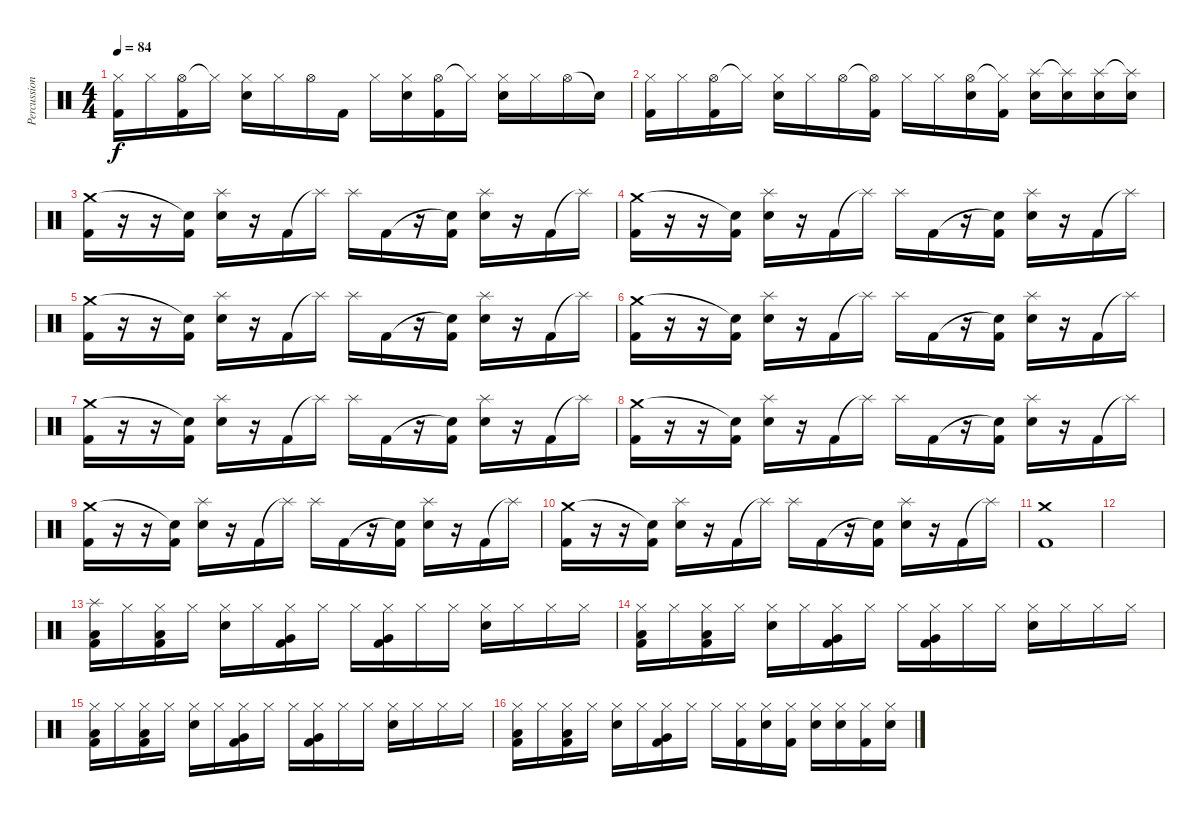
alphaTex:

\track ("Percussion" "Percussion") {instrument percussion}
\staff {score}
\articulation defaults
\ts (4 4)
\tempo 84
\clef neutral
\ks c
("Hi-Hat (closed)" "Kick (hit) 2").16{dy f} "Hi-Hat (closed)".16 ("Hi-Hat (open)" "Kick (hit) 2").16 "Hi-Hat (closed)"{t}.16 ("Hi-Hat (closed)" "Electric Snare (hit)").16 "Hi-Hat (closed)".16 "Hi-Hat (open)".16 "Kick (hit) 2".16 "Hi-Hat (closed)".16 ("Hi-Hat (closed)" "Electric Snare (hit)").16 ("Hi-Hat (open)" "Kick (hit) 2").16 "Hi-Hat (closed)"{t}.16 ("Hi-Hat (closed)" "Electric Snare (hit)").16 "Hi-Hat (closed)".16 "Hi-Hat (open)".16 "Snare (hit)"{t}.16 |
("Hi-Hat (closed)" "Kick (hit) 2").16 "Hi-Hat (closed)".16 ("Hi-Hat (open)" "Kick (hit) 2").16 "Hi-Hat (closed)"{t}.16 ("Hi-Hat (closed)" "Electric Snare (hit)").16 "Hi-Hat (closed)".16 "Hi-Hat (open)".16 ("Hi-Hat (open)"{t} "Kick (hit) 2").16 "Hi-Hat (closed)".16 "Hi-Hat (closed)".16 ("Hi-Hat (open)" "Electric Snare (hit)").16 ("Hi-Hat (closed)"{t} "Kick (hit) 2").16 ("Splash (hit)" "Electric Snare (hit)").16 ("Splash (hit)"{t} "Electric Snare (hit)").16 ("Splash (hit)" "Electric Snare (hit)").16 ("Splash (hit)"{t} "Electric Snare (hit)").16 |
("Crash medium (hit)" "Kick (hit) 2").16 r.16 r.16 ("Snare (hit)"{t} "Kick (hit) 2").16 ("Splash (hit)" "Electric Snare (hit)").16 r.16 "Kick (hit) 2".16 "Splash (hit)"{t}.16 "Splash (hit)".16 "Kick (hit) 2".16 r.16 ("Snare (hit)"{t} "Kick (hit) 2").16 ("Splash (hit)" "Electric Snare (hit)").16 r.16 "Kick (hit) 2".16 "Splash (hit)"{t}.16 |
("Crash medium (hit)" "Kick (hit) 2").16 r.16 r.16 ("Snare (hit)"{t} "Kick (hit) 2").16 ("Splash (hit)" "Electric Snare (hit)").16 r.16 "Kick (hit) 2".16 "Splash (hit)"{t}.16 "Splash (hit)".16 "Kick (hit) 2".16 r.16 ("Snare (hit)"{t} "Kick (hit) 2").16 ("Splash (hit)" "Electric Snare (hit)").16 r.16 "Kick (hit) 2".16 "Splash (hit)"{t}.16 |
("Crash medium (hit)" "Kick (hit) 2").16 r.16 r.16 ("Snare (hit)"{t} "Kick (hit) 2").16 ("Splash (hit)" "Electric Snare (hit)").16 r.16 "Kick (hit) 2".16 "Splash (hit)"{t}.16 "Splash (hit)".16 "Kick (hit) 2".16 r.16 ("Snare (hit)"{t} "Kick (hit) 2").16 ("Splash (hit)" "Electric Snare (hit)").16 r.16 "Kick (hit) 2".16 "Splash (hit)"{t}.16 |
("Crash medium (hit)" "Kick (hit) 2").16 r.16 r.16 ("Snare (hit)"{t} "Kick (hit) 2").16 ("Splash (hit)" "Electric Snare (hit)").16 r.16 "Kick (hit) 2".16 "Splash (hit)"{t}.16 "Splash (hit)".16 "Kick (hit) 2".16 r.16 ("Snare (hit)"{t} "Kick (hit) 2").16 ("Splash (hit)" "Electric Snare (hit)").16 r.16 "Kick (hit) 2".16 "Splash (hit)"{t}.16 |
("Crash medium (hit)" "Kick (hit) 2").16 r.16 r.16 ("Snare (hit)"{t} "Kick (hit) 2").16 ("Splash (hit)" "Electric Snare (hit)").16 r.16 "Kick (hit) 2".16 "Splash (hit)"{t}.16 "Splash (hit)".16 "Kick (hit) 2".16 r.16 ("Snare (hit)"{t} "Kick (hit) 2").16 ("Splash (hit)" "Electric Snare (hit)").16 r.16 "Kick (hit) 2".16 "Splash (hit)"{t}.16 |
("Crash medium (hit)" "Kick (hit) 2").16 r.16 r.16 ("Snare (hit)"{t} "Kick (hit) 2").16 ("Splash (hit)" "Electric Snare (hit)").16 r.16 "Kick (hit) 2".16 "Splash (hit)"{t}.16 "Splash (hit)".16 "Kick (hit) 2".16 r.16 ("Snare (hit)"{t} "Kick (hit) 2").16 ("Splash (hit)" "Electric Snare (hit)").16 r.16 "Kick (hit) 2".16 "Splash (hit)"{t}.16 |
("Crash medium (hit)" "Kick (hit) 2").16 r.16 r.16 ("Snare (hit)"{t} "Kick (hit) 2").16 ("Splash (hit)" "Electric Snare (hit)").16 r.16 "Kick (hit) 2".16 "Splash (hit)"{t}.16 "Splash (hit)".16 "Kick (hit) 2".16 r.16 ("Snare (hit)"{t} "Kick (hit) 2").16 ("Splash (hit)" "Electric Snare (hit)").16 r.16 "Kick (hit) 2".16 "Splash (hit)"{t}.16 |
("Crash medium (hit)" "Kick (hit) 2").16 r.16 r.16 ("Snare (hit)"{t} "Kick (hit) 2").16 ("Splash (hit)" "Electric Snare (hit)").16 r.16 "Kick (hit) 2".16 "Splash (hit)"{t}.16 "Splash (hit)".16 "Kick (hit) 2".16 r.16 ("Snare (hit)"{t} "Kick (hit) 2").16 ("Splash (hit)" "Electric Snare (hit)").16 r.16 "Kick (hit) 2".16 "Splash (hit)"{t}.16 |
("Crash medium (hit)" "Kick (hit) 2").1 |
|
("Splash (hit)" "Low Floor Tom (hit)" "Kick (hit) 2").16 "Hi-Hat (closed)".16 ("Hi-Hat (closed)" "Low Floor Tom (hit)" "Kick (hit) 2").16 "Hi-Hat (closed)".16 ("Hi-Hat (closed)" "Electric Snare (hit)").16 "Hi-Hat (closed)".16 ("Hi-Hat (closed)" "Very Low Tom (hit)" "Kick (hit) 2").16 "Hi-Hat (closed)".16 "Hi-Hat (closed)".16 ("Hi-Hat (closed)" "Very Low Tom (hit)" "Kick (hit) 2").16 "Hi-Hat (closed)".16 "Hi-Hat (closed)".16 ("Hi-Hat (closed)" "Electric Snare (hit)").16 "Hi-Hat (closed)".16 "Hi-Hat (closed)".16 "Hi-Hat (closed)".16 |
("Hi-Hat (closed)" "Low Floor Tom (hit)" "Kick (hit) 2").16 "Hi-Hat (closed)".16 ("Hi-Hat (closed)" "Low Floor Tom (hit)" "Kick (hit) 2").16 "Hi-Hat (closed)".16 ("Hi-Hat (closed)" "Electric Snare (hit)").16 "Hi-Hat (closed)".16 ("Hi-Hat (closed)" "Very Low Tom (hit)" "Kick (hit) 2").16 "Hi-Hat (closed)".16 "Hi-Hat (closed)".16 ("Hi-Hat (closed)" "Very Low Tom (hit)" "Kick (hit) 2").16 "Hi-Hat (closed)".16 "Hi-Hat (closed)".16 ("Hi-Hat (closed)" "Electric Snare (hit)").16 "Hi-Hat (closed)".16 "Hi-Hat (closed)".16 "Hi-Hat (closed)".16 |
("Hi-Hat (closed)" "Low Floor Tom (hit)" "Kick (hit) 2").16 "Hi-Hat (closed)".16 ("Hi-Hat (closed)" "Low Floor Tom (hit)" "Kick (hit) 2").16 "Hi-Hat (closed)".16 ("Hi-Hat (closed)" "Electric Snare (hit)").16 "Hi-Hat (closed)".16 ("Hi-Hat (closed)" "Very Low Tom (hit)" "Kick (hit) 2").16 "Hi-Hat (closed)".16 "Hi-Hat (closed)".16 ("Hi-Hat (closed)" "Very Low Tom (hit)" "Kick (hit) 2").16 "Hi-Hat (closed)".16 "Hi-Hat (closed)".16 ("Hi-Hat (closed)" "Electric Snare (hit)").16 "Hi-Hat (closed)".16 "Hi-Hat (closed)".16 "Hi-Hat (closed)".16 |
("Hi-Hat (closed)" "Low Floor Tom (hit)" "Kick (hit) 2").16 "Hi-Hat (closed)".16 ("Hi-Hat (closed)" "Low Floor Tom (hit)" "Kick (hit) 2").16 "Hi-Hat (closed)".16 ("Hi-Hat (closed)" "Electric Snare (hit)").16 "Hi-Hat (closed)".16 ("Hi-Hat (closed)" "Very Low Tom (hit)" "Kick (hit) 2").16 "Hi-Hat (closed)".16 "Hi-Hat (closed)".16 ("Hi-Hat (closed)" "Kick (hit) 2").16 ("Hi-Hat (closed)" "Electric Snare (hit)").16 ("Hi-Hat (closed)" "Kick (hit) 2").16 ("Hi-Hat (closed)" "Electric Snare (hit)").16 ("Hi-Hat (closed)" "Electric Snare (hit)").16 ("Hi-Hat (closed)" "Kick (hit) 2").16 ("Hi-Hat (closed)" "Electric Snare (hit)").16
